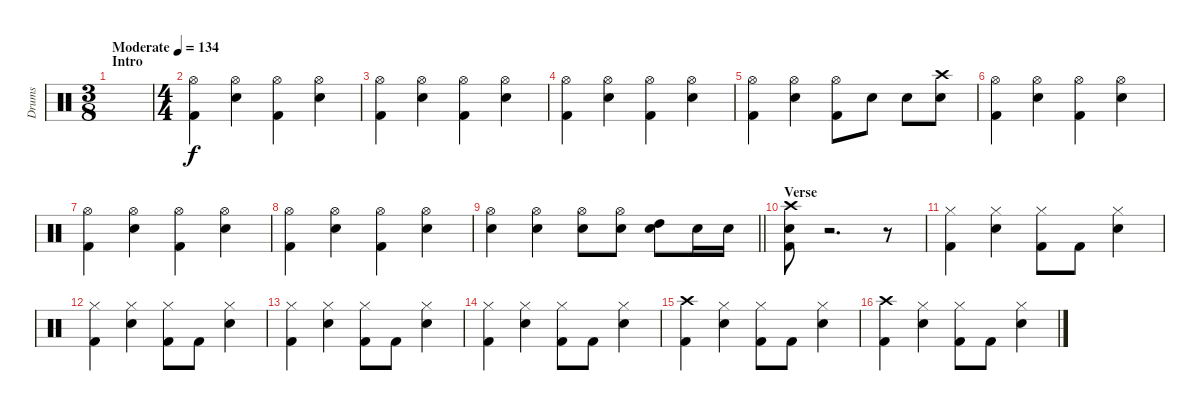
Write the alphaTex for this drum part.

\track ("Drums" "Drums") {instrument percussion}
\staff {score}
\articulation defaults
\ts (3 8)
\section ("" "Intro")
\tempo (134 "Moderate")
\clef neutral
\ks c
|
\ts (4 4)
("Hi-Hat (open)" "Kick (hit) 2").4 ("Hi-Hat (open)" "Snare (hit) 2").4 ("Hi-Hat (open)" "Kick (hit) 2").4 ("Hi-Hat (open)" "Snare (hit) 2").4 |
("Hi-Hat (open)" "Kick (hit) 2").4 ("Hi-Hat (open)" "Snare (hit) 2").4 ("Hi-Hat (open)" "Kick (hit) 2").4 ("Hi-Hat (open)" "Snare (hit) 2").4 |
("Hi-Hat (open)" "Kick (hit) 2").4 ("Hi-Hat (open)" "Snare (hit) 2").4 ("Hi-Hat (open)" "Kick (hit) 2").4 ("Hi-Hat (open)" "Snare (hit) 2").4 |
("Hi-Hat (open)" "Kick (hit) 2").4 ("Hi-Hat (open)" "Snare (hit) 2").4 ("Hi-Hat (open)" "Kick (hit) 2").8 "Snare (hit) 2".8 "Snare (hit) 2".8 ("Crash high (hit)" "Snare (hit) 2").8 |
("Hi-Hat (open)" "Kick (hit) 2").4 ("Hi-Hat (open)" "Snare (hit) 2").4 ("Hi-Hat (open)" "Kick (hit) 2").4 ("Hi-Hat (open)" "Snare (hit) 2").4 |
("Hi-Hat (open)" "Kick (hit) 2").4 ("Hi-Hat (open)" "Snare (hit) 2").4 ("Hi-Hat (open)" "Kick (hit) 2").4 ("Hi-Hat (open)" "Snare (hit) 2").4 |
("Hi-Hat (open)" "Kick (hit) 2").4 ("Hi-Hat (open)" "Snare (hit) 2").4 ("Hi-Hat (open)" "Kick (hit) 2").4 ("Hi-Hat (open)" "Snare (hit) 2").4 |
\barLineRight lightlight
("Hi-Hat (open)" "Snare (hit) 2").4 ("Hi-Hat (open)" "Snare (hit) 2").4 ("Hi-Hat (open)" "Snare (hit) 2").8 ("Hi-Hat (open)" "Snare (hit) 2").8 ("High Tom (hit)" "Snare (hit) 2").8 "Snare (hit) 2".16 "Snare (hit) 2".16 |
\section ("" "Verse")
("Kick (hit) 2" "Crash high (hit)" "Snare (hit) 2").8 r.2{d} r.8 |
("Hi-Hat (closed)" "Kick (hit) 2").4 ("Hi-Hat (closed)" "Snare (hit) 2").4 ("Hi-Hat (closed)" "Kick (hit) 2").8 "Kick (hit) 2".8 ("Hi-Hat (closed)" "Snare (hit) 2").4 |
("Hi-Hat (closed)" "Kick (hit) 2").4 ("Hi-Hat (closed)" "Snare (hit) 2").4 ("Hi-Hat (closed)" "Kick (hit) 2").8 "Kick (hit) 2".8 ("Hi-Hat (closed)" "Snare (hit) 2").4 |
("Hi-Hat (closed)" "Kick (hit) 2").4 ("Hi-Hat (closed)" "Snare (hit) 2").4 ("Hi-Hat (closed)" "Kick (hit) 2").8 "Kick (hit) 2".8 ("Hi-Hat (closed)" "Snare (hit) 2").4 |
("Hi-Hat (closed)" "Kick (hit) 2").4 ("Hi-Hat (closed)" "Snare (hit) 2").4 ("Hi-Hat (closed)" "Kick (hit) 2").8 "Kick (hit) 2".8 ("Hi-Hat (closed)" "Snare (hit) 2").4 |
("Crash high (hit)" "Kick (hit) 2").4 ("Hi-Hat (closed)" "Snare (hit) 2").4 ("Hi-Hat (closed)" "Kick (hit) 2").8 "Kick (hit) 2".8 ("Hi-Hat (closed)" "Snare (hit) 2").4 |
("Crash high (hit)" "Kick (hit) 2").4 ("Hi-Hat (closed)" "Snare (hit) 2").4 ("Hi-Hat (closed)" "Kick (hit) 2").8 "Kick (hit) 2".8 ("Hi-Hat (closed)" "Snare (hit) 2").4
